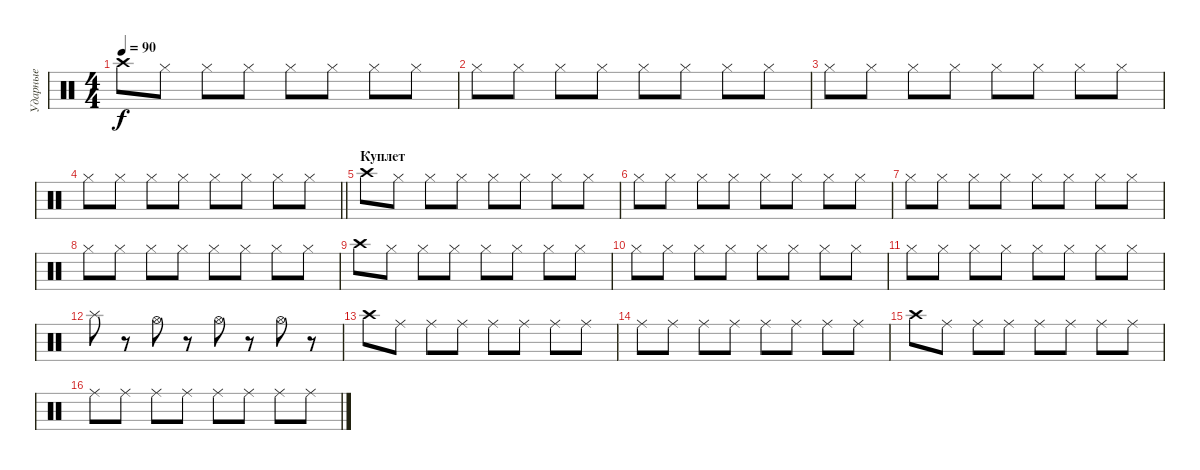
\track ("Ударные" "Ударные") {instrument percussion}
\staff {score}
\articulation defaults
\ts (4 4)
\tempo 90
\clef neutral
\ks c "Crash high (hit)".8{dy f} "Hi-Hat (closed)".8 "Hi-Hat (closed)".8 "Hi-Hat (closed)".8 "Hi-Hat (closed)".8 "Hi-Hat (closed)".8 "Hi-Hat (closed)".8 "Hi-Hat (closed)".8
|
"Hi-Hat (closed)".8 "Hi-Hat (closed)".8 "Hi-Hat (closed)".8 "Hi-Hat (closed)".8 "Hi-Hat (closed)".8 "Hi-Hat (closed)".8 "Hi-Hat (closed)".8 "Hi-Hat (closed)".8 |
"Hi-Hat (closed)".8 "Hi-Hat (closed)".8 "Hi-Hat (closed)".8 "Hi-Hat (closed)".8 "Hi-Hat (closed)".8 "Hi-Hat (closed)".8 "Hi-Hat (closed)".8 "Hi-Hat (closed)".8 |
\barLineRight lightlight "Hi-Hat (closed)".8 "Hi-Hat (closed)".8 "Hi-Hat (closed)".8 "Hi-Hat (closed)".8 "Hi-Hat (closed)".8 "Hi-Hat (closed)".8 "Hi-Hat (closed)".8 "Hi-Hat (closed)".8
|
\section ("" "Куплет")
"Crash high (hit)".8 "Hi-Hat (closed)".8 "Hi-Hat (closed)".8 "Hi-Hat (closed)".8 "Hi-Hat (closed)".8 "Hi-Hat (closed)".8 "Hi-Hat (closed)".8 "Hi-Hat (closed)".8 |
"Hi-Hat (closed)".8 "Hi-Hat (closed)".8 "Hi-Hat (closed)".8 "Hi-Hat (closed)".8 "Hi-Hat (closed)".8 "Hi-Hat (closed)".8 "Hi-Hat (closed)".8 "Hi-Hat (closed)".8 |
"Hi-Hat (closed)".8 "Hi-Hat (closed)".8 "Hi-Hat (closed)".8 "Hi-Hat (closed)".8 "Hi-Hat (closed)".8 "Hi-Hat (closed)".8 "Hi-Hat (closed)".8 "Hi-Hat (closed)".8 |
"Hi-Hat (closed)".8 "Hi-Hat (closed)".8 "Hi-Hat (closed)".8 "Hi-Hat (closed)".8 "Hi-Hat (closed)".8 "Hi-Hat (closed)".8 "Hi-Hat (closed)".8 "Hi-Hat (closed)".8 |
"Crash high (hit)".8 "Hi-Hat (closed)".8 "Hi-Hat (closed)".8 "Hi-Hat (closed)".8 "Hi-Hat (closed)".8 "Hi-Hat (closed)".8 "Hi-Hat (closed)".8 "Hi-Hat (closed)".8 |
"Hi-Hat (closed)".8 "Hi-Hat (closed)".8 "Hi-Hat (closed)".8 "Hi-Hat (closed)".8 "Hi-Hat (closed)".8 "Hi-Hat (closed)".8 "Hi-Hat (closed)".8 "Hi-Hat (closed)".8 |
"Hi-Hat (closed)".8 "Hi-Hat (closed)".8 "Hi-Hat (closed)".8 "Hi-Hat (closed)".8 "Hi-Hat (closed)".8 "Hi-Hat (closed)".8 "Hi-Hat (closed)".8 "Hi-Hat (closed)".8 |
"Splash (hit)".8 r.8 "Hi-Hat (open)".8 r.8 "Hi-Hat (open)".8 r.8 "Hi-Hat (open)".8 r.8 |
"Crash high (hit)".8 "Ride (middle)".8 "Ride (middle)".8 "Ride (middle)".8 "Ride (middle)".8 "Ride (middle)".8 "Ride (middle)".8 "Ride (middle)".8 |
"Ride (middle)".8 "Ride (middle)".8 "Ride (middle)".8 "Ride (middle)".8 "Ride (middle)".8 "Ride (middle)".8 "Ride (middle)".8 "Ride (middle)".8 |
"Crash high (hit)".8 "Ride (middle)".8 "Ride (middle)".8 "Ride (middle)".8 "Ride (middle)".8 "Ride (middle)".8 "Ride (middle)".8 "Ride (middle)".8 |
"Ride (middle)".8 "Ride (middle)".8 "Ride (middle)".8 "Ride (middle)".8 "Ride (middle)".8 "Ride (middle)".8 "Ride (middle)".8 "Ride (middle)".8
